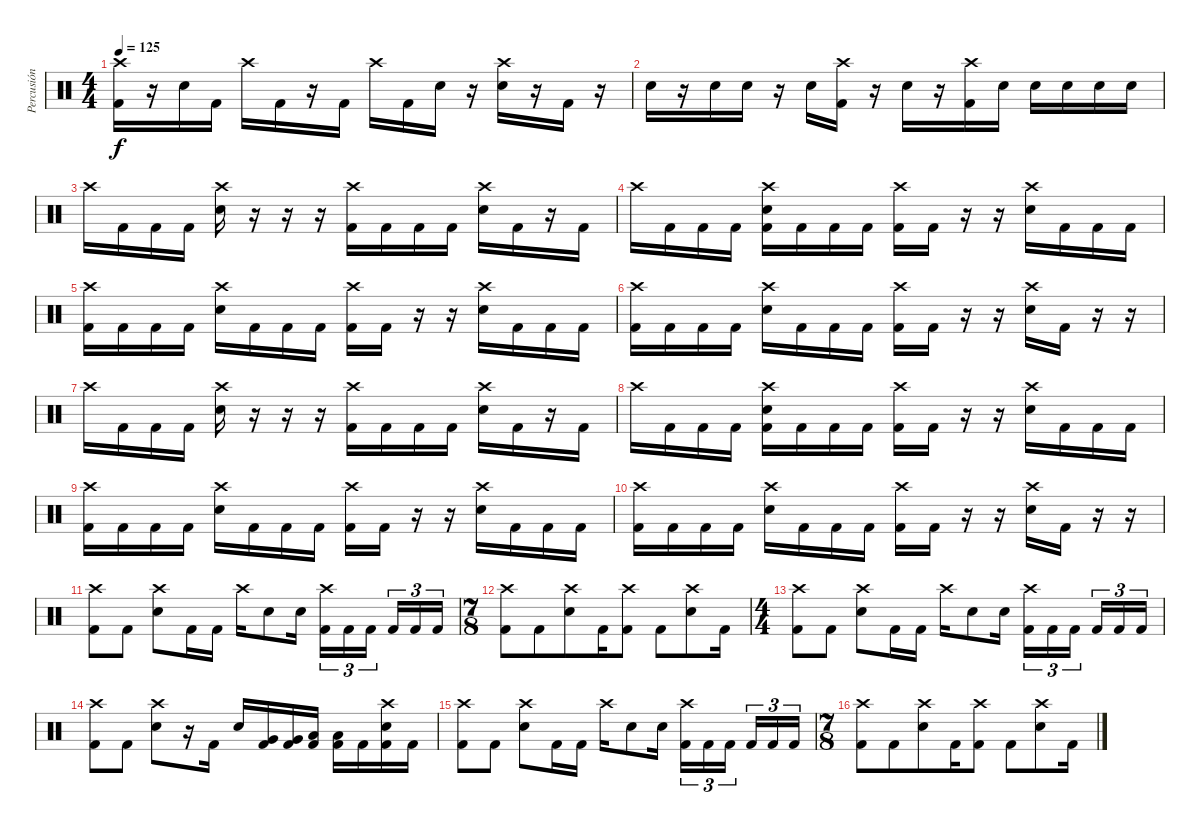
\track ("Percusión" "Percusión") {instrument percussion}
\staff {score}
\articulation defaults
\ts (4 4)
\tempo 125
\clef neutral
\ks c
("Crash high (hit)" "Kick (hit) 2").16{dy f} r.16 "Electric Snare (hit)".16 "Kick (hit) 2".16 "Crash high (hit)".16 "Kick (hit) 2".16 r.16 "Kick (hit) 2".16 "Crash high (hit)".16 "Kick (hit) 2".16 "Electric Snare (hit)".16 r.16 ("Crash high (hit)" "Electric Snare (hit)").16 r.16 "Kick (hit) 2".16 r.16 |
"Electric Snare (hit)".16 r.16 "Electric Snare (hit)".16 "Electric Snare (hit)".16 r.16 "Electric Snare (hit)".16 ("Crash high (hit)" "Kick (hit) 2").16 r.16 "Electric Snare (hit)".16 r.16 ("Crash high (hit)" "Kick (hit) 2").16 "Electric Snare (hit)".16 "Electric Snare (hit)".16 "Electric Snare (hit)".16 "Electric Snare (hit)".16 "Electric Snare (hit)".16 |
"Crash high (hit)".16 "Kick (hit) 2".16 "Kick (hit) 2".16 "Kick (hit) 2".16 ("Crash high (hit)" "Electric Snare (hit)").16 r.16 r.16 r.16 ("Crash high (hit)" "Kick (hit) 2").16 "Kick (hit) 2".16 "Kick (hit) 2".16 "Kick (hit) 2".16 ("Crash high (hit)" "Electric Snare (hit)").16 "Kick (hit) 2".16 r.16 "Kick (hit) 2".16 |
"Crash high (hit)".16 "Kick (hit) 2".16 "Kick (hit) 2".16 "Kick (hit) 2".16 ("Crash high (hit)" "Electric Snare (hit)" "Kick (hit) 2").16 "Kick (hit) 2".16 "Kick (hit) 2".16 "Kick (hit) 2".16 ("Crash high (hit)" "Kick (hit) 2").16 "Kick (hit) 2".16 r.16 r.16 ("Crash high (hit)" "Electric Snare (hit)").16 "Kick (hit) 2".16 "Kick (hit) 2".16 "Kick (hit) 2".16 |
("Crash high (hit)" "Kick (hit) 2").16 "Kick (hit) 2".16 "Kick (hit) 2".16 "Kick (hit) 2".16 ("Crash high (hit)" "Electric Snare (hit)").16 "Kick (hit) 2".16 "Kick (hit) 2".16 "Kick (hit) 2".16 ("Crash high (hit)" "Kick (hit) 2").16 "Kick (hit) 2".16 r.16 r.16 ("Crash high (hit)" "Electric Snare (hit)").16 "Kick (hit) 2".16 "Kick (hit) 2".16 "Kick (hit) 2".16 |
("Crash high (hit)" "Kick (hit) 2").16 "Kick (hit) 2".16 "Kick (hit) 2".16 "Kick (hit) 2".16 ("Crash high (hit)" "Electric Snare (hit)").16 "Kick (hit) 2".16 "Kick (hit) 2".16 "Kick (hit) 2".16 ("Crash high (hit)" "Kick (hit) 2").16 "Kick (hit) 2".16 r.16 r.16 ("Crash high (hit)" "Electric Snare (hit)").16 "Kick (hit) 2".16 r.16 r.16 |
"Crash high (hit)".16 "Kick (hit) 2".16 "Kick (hit) 2".16 "Kick (hit) 2".16 ("Crash high (hit)" "Electric Snare (hit)").16 r.16 r.16 r.16 ("Crash high (hit)" "Kick (hit) 2").16 "Kick (hit) 2".16 "Kick (hit) 2".16 "Kick (hit) 2".16 ("Crash high (hit)" "Electric Snare (hit)").16 "Kick (hit) 2".16 r.16 "Kick (hit) 2".16 |
"Crash high (hit)".16 "Kick (hit) 2".16 "Kick (hit) 2".16 "Kick (hit) 2".16 ("Crash high (hit)" "Electric Snare (hit)" "Kick (hit) 2").16 "Kick (hit) 2".16 "Kick (hit) 2".16 "Kick (hit) 2".16 ("Crash high (hit)" "Kick (hit) 2").16 "Kick (hit) 2".16 r.16 r.16 ("Crash high (hit)" "Electric Snare (hit)").16 "Kick (hit) 2".16 "Kick (hit) 2".16 "Kick (hit) 2".16 |
("Crash high (hit)" "Kick (hit) 2").16 "Kick (hit) 2".16 "Kick (hit) 2".16 "Kick (hit) 2".16 ("Crash high (hit)" "Electric Snare (hit)").16 "Kick (hit) 2".16 "Kick (hit) 2".16 "Kick (hit) 2".16 ("Crash high (hit)" "Kick (hit) 2").16 "Kick (hit) 2".16 r.16 r.16 ("Crash high (hit)" "Electric Snare (hit)").16 "Kick (hit) 2".16 "Kick (hit) 2".16 "Kick (hit) 2".16 |
("Crash high (hit)" "Kick (hit) 2").16 "Kick (hit) 2".16 "Kick (hit) 2".16 "Kick (hit) 2".16 ("Crash high (hit)" "Electric Snare (hit)").16 "Kick (hit) 2".16 "Kick (hit) 2".16 "Kick (hit) 2".16 ("Crash high (hit)" "Kick (hit) 2").16 "Kick (hit) 2".16 r.16 r.16 ("Crash high (hit)" "Electric Snare (hit)").16 "Kick (hit) 2".16 r.16 r.16 |
("Crash high (hit)" "Kick (hit) 2").8 "Kick (hit) 2".8 ("Crash high (hit)" "Electric Snare (hit)").8 "Kick (hit) 2".16 "Kick (hit) 2".16 "Crash high (hit)".16 "Electric Snare (hit)".8 "Electric Snare (hit)".16 ("Crash high (hit)" "Kick (hit) 2").16{tu (3 2)} "Kick (hit) 2".16{tu (3 2)} "Kick (hit) 2".16{tu (3 2) beam splitsecondary} "Kick (hit) 2".16{tu (3 2)} "Kick (hit) 2".16{tu (3 2)} "Kick (hit) 2".16{tu (3 2)} |
\ts (7 8)
("Crash high (hit)" "Kick (hit) 2").8 "Kick (hit) 2".8 ("Crash high (hit)" "Electric Snare (hit)").8 "Kick (hit) 2".16 ("Crash high (hit)" "Kick (hit) 2").8 "Kick (hit) 2".8 ("Crash high (hit)" "Electric Snare (hit)").8 "Kick (hit) 2".16 |
\ts (4 4)
("Crash high (hit)" "Kick (hit) 2").8 "Kick (hit) 2".8 ("Crash high (hit)" "Electric Snare (hit)").8 "Kick (hit) 2".16 "Kick (hit) 2".16 "Crash high (hit)".16 "Electric Snare (hit)".8 "Electric Snare (hit)".16 ("Crash high (hit)" "Kick (hit) 2").16{tu (3 2)} "Kick (hit) 2".16{tu (3 2)} "Kick (hit) 2".16{tu (3 2) beam splitsecondary} "Kick (hit) 2".16{tu (3 2)} "Kick (hit) 2".16{tu (3 2)} "Kick (hit) 2".16{tu (3 2)} |
("Crash high (hit)" "Kick (hit) 2").8 "Kick (hit) 2".8 ("Crash high (hit)" "Electric Snare (hit)").8 r.16 "Kick (hit) 2".16 "Electric Snare (hit)".16 ("Very Low Tom (hit)" "Kick (hit) 2").16 ("Very Low Tom (hit)" "Kick (hit) 2").16 ("Low Floor Tom (hit)" "Kick (hit) 2").16 ("Low Floor Tom (hit)" "Kick (hit) 2").16 "Kick (hit) 2".16 ("Crash high (hit)" "Electric Snare (hit)" "Kick (hit) 2").16 "Kick (hit) 2".16 |
("Crash high (hit)" "Kick (hit) 2").8 "Kick (hit) 2".8 ("Crash high (hit)" "Electric Snare (hit)").8 "Kick (hit) 2".16 "Kick (hit) 2".16 "Crash high (hit)".16 "Electric Snare (hit)".8 "Electric Snare (hit)".16 ("Crash high (hit)" "Kick (hit) 2").16{tu (3 2)} "Kick (hit) 2".16{tu (3 2)} "Kick (hit) 2".16{tu (3 2) beam splitsecondary} "Kick (hit) 2".16{tu (3 2)} "Kick (hit) 2".16{tu (3 2)} "Kick (hit) 2".16{tu (3 2)} |
\ts (7 8)
("Crash high (hit)" "Kick (hit) 2").8 "Kick (hit) 2".8 ("Crash high (hit)" "Electric Snare (hit)").8 "Kick (hit) 2".16 ("Crash high (hit)" "Kick (hit) 2").8 "Kick (hit) 2".8 ("Crash high (hit)" "Electric Snare (hit)").8 "Kick (hit) 2".16
